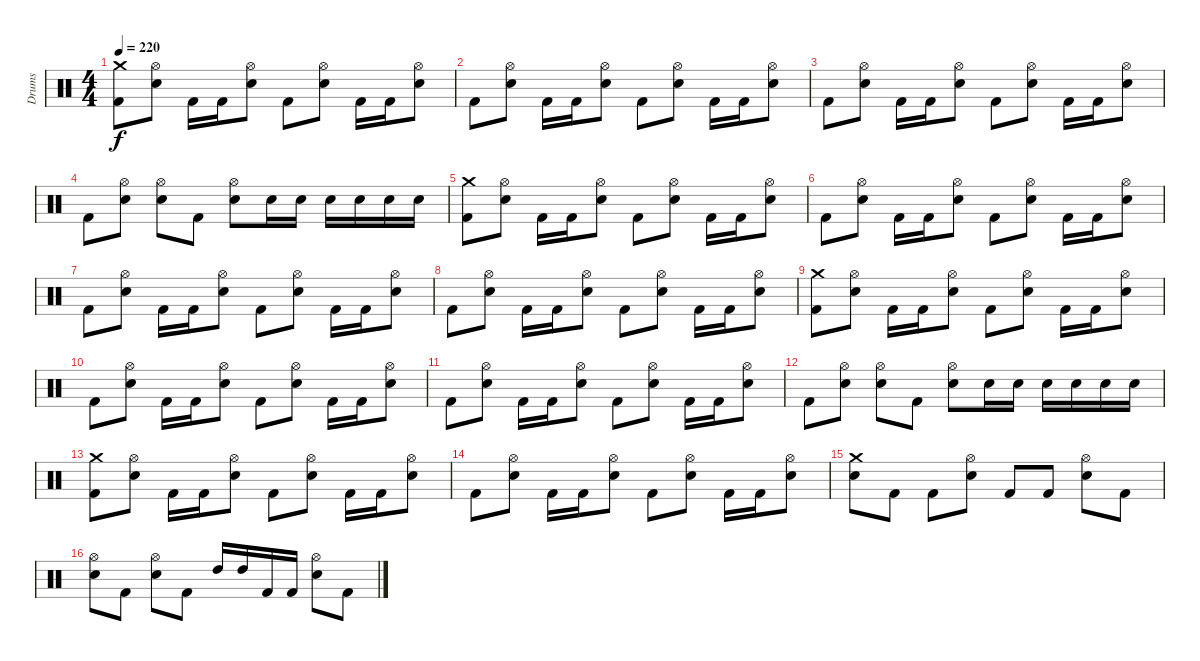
\track ("Drums" "Drums") {instrument percussion}
\staff {score}
\articulation defaults
\ts (4 4)
\tempo 220
\clef neutral
\ks c
("Crash medium (hit)" "Kick (hit) 2").8{dy f} ("Hi-Hat (open)" "Electric Snare (hit)").8 "Kick (hit) 2".16 "Kick (hit) 2".16 ("Hi-Hat (open)" "Electric Snare (hit)").8 "Kick (hit) 2".8 ("Hi-Hat (open)" "Electric Snare (hit)").8 "Kick (hit) 2".16 "Kick (hit) 2".16 ("Hi-Hat (open)" "Electric Snare (hit)").8 |
"Kick (hit) 2".8 ("Hi-Hat (open)" "Electric Snare (hit)").8 "Kick (hit) 2".16 "Kick (hit) 2".16 ("Hi-Hat (open)" "Electric Snare (hit)").8 "Kick (hit) 2".8 ("Hi-Hat (open)" "Electric Snare (hit)").8 "Kick (hit) 2".16 "Kick (hit) 2".16 ("Hi-Hat (open)" "Electric Snare (hit)").8 |
"Kick (hit) 2".8 ("Hi-Hat (open)" "Electric Snare (hit)").8 "Kick (hit) 2".16 "Kick (hit) 2".16 ("Hi-Hat (open)" "Electric Snare (hit)").8 "Kick (hit) 2".8 ("Hi-Hat (open)" "Electric Snare (hit)").8 "Kick (hit) 2".16 "Kick (hit) 2".16 ("Hi-Hat (open)" "Electric Snare (hit)").8 |
"Kick (hit) 2".8 ("Hi-Hat (open)" "Electric Snare (hit)").8 ("Hi-Hat (open)" "Electric Snare (hit)").8 "Kick (hit) 2".8 ("Hi-Hat (open)" "Electric Snare (hit)").8 "Electric Snare (hit)".16 "Electric Snare (hit)".16 "Electric Snare (hit)".16 "Electric Snare (hit)".16 "Electric Snare (hit)".16 "Electric Snare (hit)".16 |
("Crash medium (hit)" "Kick (hit) 2").8 ("Hi-Hat (open)" "Electric Snare (hit)").8 "Kick (hit) 2".16 "Kick (hit) 2".16 ("Hi-Hat (open)" "Electric Snare (hit)").8 "Kick (hit) 2".8 ("Hi-Hat (open)" "Electric Snare (hit)").8 "Kick (hit) 2".16 "Kick (hit) 2".16 ("Hi-Hat (open)" "Electric Snare (hit)").8 |
"Kick (hit) 2".8 ("Hi-Hat (open)" "Electric Snare (hit)").8 "Kick (hit) 2".16 "Kick (hit) 2".16 ("Hi-Hat (open)" "Electric Snare (hit)").8 "Kick (hit) 2".8 ("Hi-Hat (open)" "Electric Snare (hit)").8 "Kick (hit) 2".16 "Kick (hit) 2".16 ("Hi-Hat (open)" "Electric Snare (hit)").8 |
"Kick (hit) 2".8 ("Hi-Hat (open)" "Electric Snare (hit)").8 "Kick (hit) 2".16 "Kick (hit) 2".16 ("Hi-Hat (open)" "Electric Snare (hit)").8 "Kick (hit) 2".8 ("Hi-Hat (open)" "Electric Snare (hit)").8 "Kick (hit) 2".16 "Kick (hit) 2".16 ("Hi-Hat (open)" "Electric Snare (hit)").8 |
"Kick (hit) 2".8 ("Hi-Hat (open)" "Electric Snare (hit)").8 "Kick (hit) 2".16 "Kick (hit) 2".16 ("Hi-Hat (open)" "Electric Snare (hit)").8 "Kick (hit) 2".8 ("Hi-Hat (open)" "Electric Snare (hit)").8 "Kick (hit) 2".16 "Kick (hit) 2".16 ("Hi-Hat (open)" "Electric Snare (hit)").8 |
("Crash medium (hit)" "Kick (hit) 2").8 ("Hi-Hat (open)" "Electric Snare (hit)").8 "Kick (hit) 2".16 "Kick (hit) 2".16 ("Hi-Hat (open)" "Electric Snare (hit)").8 "Kick (hit) 2".8 ("Hi-Hat (open)" "Electric Snare (hit)").8 "Kick (hit) 2".16 "Kick (hit) 2".16 ("Hi-Hat (open)" "Electric Snare (hit)").8 |
"Kick (hit) 2".8 ("Hi-Hat (open)" "Electric Snare (hit)").8 "Kick (hit) 2".16 "Kick (hit) 2".16 ("Hi-Hat (open)" "Electric Snare (hit)").8 "Kick (hit) 2".8 ("Hi-Hat (open)" "Electric Snare (hit)").8 "Kick (hit) 2".16 "Kick (hit) 2".16 ("Hi-Hat (open)" "Electric Snare (hit)").8 |
"Kick (hit) 2".8 ("Hi-Hat (open)" "Electric Snare (hit)").8 "Kick (hit) 2".16 "Kick (hit) 2".16 ("Hi-Hat (open)" "Electric Snare (hit)").8 "Kick (hit) 2".8 ("Hi-Hat (open)" "Electric Snare (hit)").8 "Kick (hit) 2".16 "Kick (hit) 2".16 ("Hi-Hat (open)" "Electric Snare (hit)").8 |
"Kick (hit) 2".8 ("Hi-Hat (open)" "Electric Snare (hit)").8 ("Hi-Hat (open)" "Electric Snare (hit)").8 "Kick (hit) 2".8 ("Hi-Hat (open)" "Electric Snare (hit)").8 "Electric Snare (hit)".16 "Electric Snare (hit)".16 "Electric Snare (hit)".16 "Electric Snare (hit)".16 "Electric Snare (hit)".16 "Electric Snare (hit)".16 |
("Crash medium (hit)" "Kick (hit) 2").8 ("Hi-Hat (open)" "Electric Snare (hit)").8 "Kick (hit) 2".16 "Kick (hit) 2".16 ("Hi-Hat (open)" "Electric Snare (hit)").8 "Kick (hit) 2".8 ("Hi-Hat (open)" "Electric Snare (hit)").8 "Kick (hit) 2".16 "Kick (hit) 2".16 ("Hi-Hat (open)" "Electric Snare (hit)").8 |
"Kick (hit) 2".8 ("Hi-Hat (open)" "Electric Snare (hit)").8 "Kick (hit) 2".16 "Kick (hit) 2".16 ("Hi-Hat (open)" "Electric Snare (hit)").8 "Kick (hit) 2".8 ("Hi-Hat (open)" "Electric Snare (hit)").8 "Kick (hit) 2".16 "Kick (hit) 2".16 ("Hi-Hat (open)" "Electric Snare (hit)").8 |
("Crash medium (hit)" "Electric Snare (hit)").8 "Kick (hit) 2".8 "Kick (hit) 2".8 ("Hi-Hat (open)" "Electric Snare (hit)").8 "Kick (hit) 2".8 "Kick (hit) 2".8 ("Hi-Hat (open)" "Electric Snare (hit)").8 "Kick (hit) 2".8 |
("Hi-Hat (open)" "Electric Snare (hit)").8 "Kick (hit) 2".8 ("Hi-Hat (open)" "Electric Snare (hit)").8 "Kick (hit) 2".8 "High Tom (hit)".16 "High Tom (hit)".16 "Kick (hit) 2".16 "Kick (hit) 2".16 ("Hi-Hat (open)" "Electric Snare (hit)").8 "Kick (hit) 2".8
